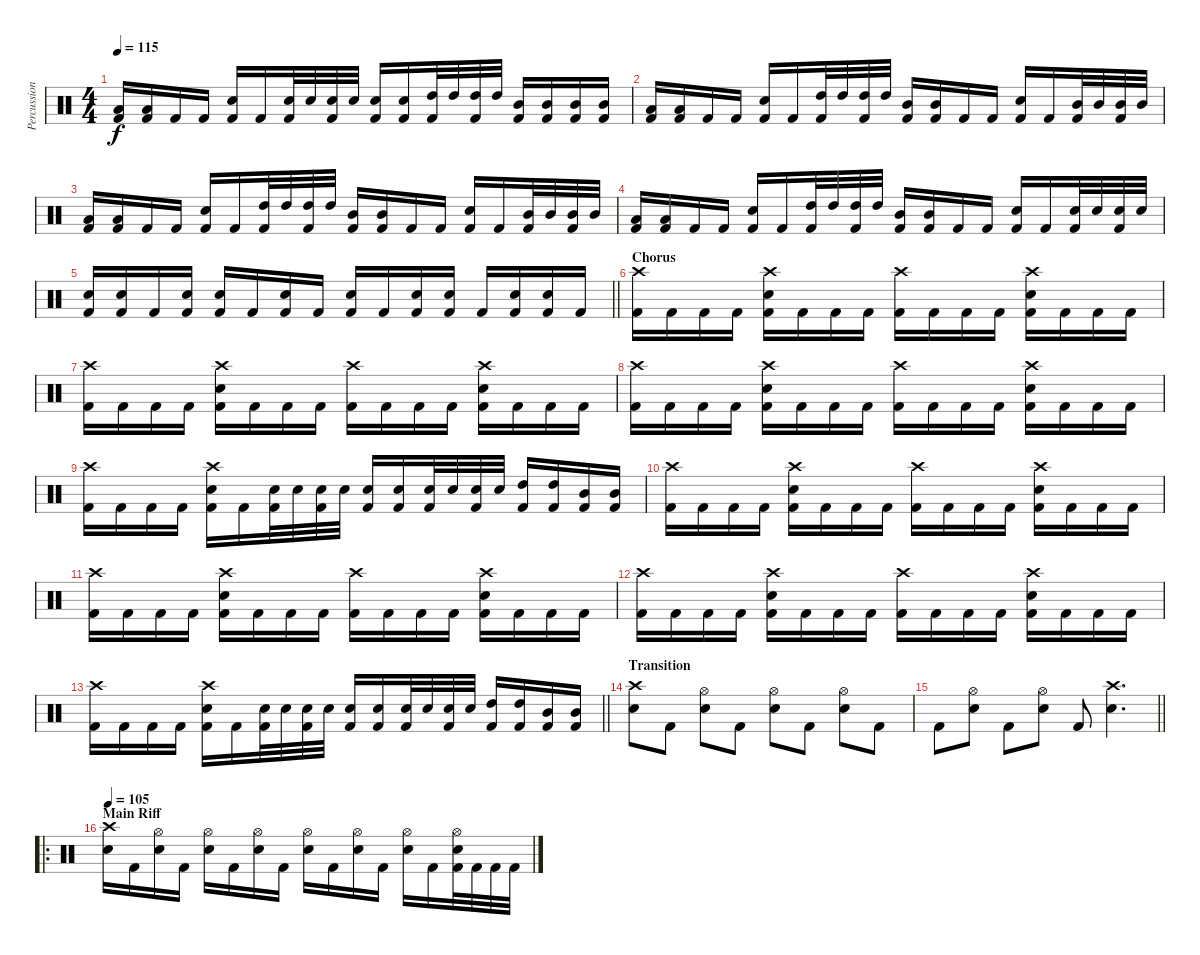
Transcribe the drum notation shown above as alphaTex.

\track ("Percussion" "Percussion") {mute instrument percussion}
\staff {score}
\articulation defaults
\ts (4 4)
\tempo 115
\clef neutral
\ks c
("Low Tom (hit)" "Kick (hit) 2").16{dy f} ("Low Tom (hit)" "Kick (hit) 2").16 "Kick (hit) 2".16 "Kick (hit) 2".16 ("Electric Snare (hit)" "Kick (hit) 2").16 "Kick (hit) 2".16 ("Electric Snare (hit)" "Kick (hit) 2").32 "Electric Snare (hit)".32 ("Electric Snare (hit)" "Kick (hit) 2").32 "Electric Snare (hit)".32 ("Electric Snare (hit)" "Kick (hit) 2").16 ("Electric Snare (hit)" "Kick (hit) 2").16 ("High Tom (hit)" "Kick (hit) 2").32 "High Tom (hit)".32 ("High Tom (hit)" "Kick (hit) 2").32 "High Tom (hit)".32 ("Mid Tom (hit)" "Kick (hit) 2").16 ("Mid Tom (hit)" "Kick (hit) 2").16 ("Mid Tom (hit)" "Kick (hit) 2").16 ("Mid Tom (hit)" "Kick (hit) 2").16 |
("Low Tom (hit)" "Kick (hit) 2").16 ("Low Tom (hit)" "Kick (hit) 2").16 "Kick (hit) 2".16 "Kick (hit) 2".16 ("Electric Snare (hit)" "Kick (hit) 2").16 "Kick (hit) 2".16 ("High Tom (hit)" "Kick (hit) 2").32 "High Tom (hit)".32 ("High Tom (hit)" "Kick (hit) 2").32 "High Tom (hit)".32 ("Mid Tom (hit)" "Kick (hit) 2").16 ("Mid Tom (hit)" "Kick (hit) 2").16 "Kick (hit) 2".16 "Kick (hit) 2".16 ("Electric Snare (hit)" "Kick (hit) 2").16 "Kick (hit) 2".16 ("Mid Tom (hit)" "Kick (hit) 2").32 "Mid Tom (hit)".32 ("Mid Tom (hit)" "Kick (hit) 2").32 "Mid Tom (hit)".32 |
("Low Tom (hit)" "Kick (hit) 2").16 ("Low Tom (hit)" "Kick (hit) 2").16 "Kick (hit) 2".16 "Kick (hit) 2".16 ("Electric Snare (hit)" "Kick (hit) 2").16 "Kick (hit) 2".16 ("High Tom (hit)" "Kick (hit) 2").32 "High Tom (hit)".32 ("High Tom (hit)" "Kick (hit) 2").32 "High Tom (hit)".32 ("Mid Tom (hit)" "Kick (hit) 2").16 ("Mid Tom (hit)" "Kick (hit) 2").16 "Kick (hit) 2".16 "Kick (hit) 2".16 ("Electric Snare (hit)" "Kick (hit) 2").16 "Kick (hit) 2".16 ("Mid Tom (hit)" "Kick (hit) 2").32 "Mid Tom (hit)".32 ("Mid Tom (hit)" "Kick (hit) 2").32 "Mid Tom (hit)".32 |
("Low Tom (hit)" "Kick (hit) 2").16 ("Low Tom (hit)" "Kick (hit) 2").16 "Kick (hit) 2".16 "Kick (hit) 2".16 ("Electric Snare (hit)" "Kick (hit) 2").16 "Kick (hit) 2".16 ("High Tom (hit)" "Kick (hit) 2").32 "High Tom (hit)".32 ("High Tom (hit)" "Kick (hit) 2").32 "High Tom (hit)".32 ("Mid Tom (hit)" "Kick (hit) 2").16 ("Mid Tom (hit)" "Kick (hit) 2").16 "Kick (hit) 2".16 "Kick (hit) 2".16 ("Electric Snare (hit)" "Kick (hit) 2").16 "Kick (hit) 2".16 ("Electric Snare (hit)" "Kick (hit) 2").32 "Electric Snare (hit)".32 ("Electric Snare (hit)" "Kick (hit) 2").32 "Electric Snare (hit)".32 |
\barLineRight lightlight
("Electric Snare (hit)" "Kick (hit) 2").16 ("Electric Snare (hit)" "Kick (hit) 2").16 "Kick (hit) 2".16 ("Electric Snare (hit)" "Kick (hit) 2").16 ("Electric Snare (hit)" "Kick (hit) 2").16 "Kick (hit) 2".16 ("Electric Snare (hit)" "Kick (hit) 2").16 "Kick (hit) 2".16 ("Electric Snare (hit)" "Kick (hit) 2").16 "Kick (hit) 2".16 ("Electric Snare (hit)" "Kick (hit) 2").16 ("Electric Snare (hit)" "Kick (hit) 2").16 "Kick (hit) 2".16 ("Electric Snare (hit)" "Kick (hit) 2").16 ("Electric Snare (hit)" "Kick (hit) 2").16 "Kick (hit) 2".16 |
\section ("" "Chorus")
("Crash high (hit)" "Kick (hit) 2").16 "Kick (hit) 2".16 "Kick (hit) 2".16 "Kick (hit) 2".16 ("Crash high (hit)" "Electric Snare (hit)" "Kick (hit) 2").16 "Kick (hit) 2".16 "Kick (hit) 2".16 "Kick (hit) 2".16 ("Crash high (hit)" "Kick (hit) 2").16 "Kick (hit) 2".16 "Kick (hit) 2".16 "Kick (hit) 2".16 ("Crash high (hit)" "Electric Snare (hit)" "Kick (hit) 2").16 "Kick (hit) 2".16 "Kick (hit) 2".16 "Kick (hit) 2".16 |
("Crash high (hit)" "Kick (hit) 2").16 "Kick (hit) 2".16 "Kick (hit) 2".16 "Kick (hit) 2".16 ("Crash high (hit)" "Electric Snare (hit)" "Kick (hit) 2").16 "Kick (hit) 2".16 "Kick (hit) 2".16 "Kick (hit) 2".16 ("Crash high (hit)" "Kick (hit) 2").16 "Kick (hit) 2".16 "Kick (hit) 2".16 "Kick (hit) 2".16 ("Crash high (hit)" "Electric Snare (hit)" "Kick (hit) 2").16 "Kick (hit) 2".16 "Kick (hit) 2".16 "Kick (hit) 2".16 |
("Crash high (hit)" "Kick (hit) 2").16 "Kick (hit) 2".16 "Kick (hit) 2".16 "Kick (hit) 2".16 ("Crash high (hit)" "Electric Snare (hit)" "Kick (hit) 2").16 "Kick (hit) 2".16 "Kick (hit) 2".16 "Kick (hit) 2".16 ("Crash high (hit)" "Kick (hit) 2").16 "Kick (hit) 2".16 "Kick (hit) 2".16 "Kick (hit) 2".16 ("Crash high (hit)" "Electric Snare (hit)" "Kick (hit) 2").16 "Kick (hit) 2".16 "Kick (hit) 2".16 "Kick (hit) 2".16 |
("Crash high (hit)" "Kick (hit) 2").16 "Kick (hit) 2".16 "Kick (hit) 2".16 "Kick (hit) 2".16 ("Crash high (hit)" "Electric Snare (hit)" "Kick (hit) 2").16 "Kick (hit) 2".16 ("Electric Snare (hit)" "Kick (hit) 2").32 "Electric Snare (hit)".32 ("Electric Snare (hit)" "Kick (hit) 2").32 "Electric Snare (hit)".32 ("Electric Snare (hit)" "Kick (hit) 2").16 ("Electric Snare (hit)" "Kick (hit) 2").16 ("Electric Snare (hit)" "Kick (hit) 2").32 "Electric Snare (hit)".32 ("Electric Snare (hit)" "Kick (hit) 2").32 "Electric Snare (hit)".32 ("High Tom (hit)" "Kick (hit) 2").16 ("High Tom (hit)" "Kick (hit) 2").16 ("Mid Tom (hit)" "Kick (hit) 2").16 ("Mid Tom (hit)" "Kick (hit) 2").16 |
("Crash high (hit)" "Kick (hit) 2").16 "Kick (hit) 2".16 "Kick (hit) 2".16 "Kick (hit) 2".16 ("Crash high (hit)" "Electric Snare (hit)" "Kick (hit) 2").16 "Kick (hit) 2".16 "Kick (hit) 2".16 "Kick (hit) 2".16 ("Crash high (hit)" "Kick (hit) 2").16 "Kick (hit) 2".16 "Kick (hit) 2".16 "Kick (hit) 2".16 ("Crash high (hit)" "Electric Snare (hit)" "Kick (hit) 2").16 "Kick (hit) 2".16 "Kick (hit) 2".16 "Kick (hit) 2".16 |
("Crash high (hit)" "Kick (hit) 2").16 "Kick (hit) 2".16 "Kick (hit) 2".16 "Kick (hit) 2".16 ("Crash high (hit)" "Electric Snare (hit)" "Kick (hit) 2").16 "Kick (hit) 2".16 "Kick (hit) 2".16 "Kick (hit) 2".16 ("Crash high (hit)" "Kick (hit) 2").16 "Kick (hit) 2".16 "Kick (hit) 2".16 "Kick (hit) 2".16 ("Crash high (hit)" "Electric Snare (hit)" "Kick (hit) 2").16 "Kick (hit) 2".16 "Kick (hit) 2".16 "Kick (hit) 2".16 |
("Crash high (hit)" "Kick (hit) 2").16 "Kick (hit) 2".16 "Kick (hit) 2".16 "Kick (hit) 2".16 ("Crash high (hit)" "Electric Snare (hit)" "Kick (hit) 2").16 "Kick (hit) 2".16 "Kick (hit) 2".16 "Kick (hit) 2".16 ("Crash high (hit)" "Kick (hit) 2").16 "Kick (hit) 2".16 "Kick (hit) 2".16 "Kick (hit) 2".16 ("Crash high (hit)" "Electric Snare (hit)" "Kick (hit) 2").16 "Kick (hit) 2".16 "Kick (hit) 2".16 "Kick (hit) 2".16 |
\barLineRight lightlight
("Crash high (hit)" "Kick (hit) 2").16 "Kick (hit) 2".16 "Kick (hit) 2".16 "Kick (hit) 2".16 ("Crash high (hit)" "Electric Snare (hit)" "Kick (hit) 2").16 "Kick (hit) 2".16 ("Electric Snare (hit)" "Kick (hit) 2").32 "Electric Snare (hit)".32 ("Electric Snare (hit)" "Kick (hit) 2").32 "Electric Snare (hit)".32 ("Electric Snare (hit)" "Kick (hit) 2").16 ("Electric Snare (hit)" "Kick (hit) 2").16 ("Electric Snare (hit)" "Kick (hit) 2").32 "Electric Snare (hit)".32 ("Electric Snare (hit)" "Kick (hit) 2").32 "Electric Snare (hit)".32 ("High Tom (hit)" "Kick (hit) 2").16 ("High Tom (hit)" "Kick (hit) 2").16 ("Mid Tom (hit)" "Kick (hit) 2").16 ("Mid Tom (hit)" "Kick (hit) 2").16 |
\section ("" "Transition")
("Crash high (hit)" "Electric Snare (hit)").8 "Kick (hit) 2".8 ("Hi-Hat (open)" "Electric Snare (hit)").8 "Kick (hit) 2".8 ("Hi-Hat (open)" "Electric Snare (hit)").8 "Kick (hit) 2".8 ("Hi-Hat (open)" "Electric Snare (hit)").8 "Kick (hit) 2".8 |
\barLineRight lightlight "Kick (hit) 2".8
("Hi-Hat (open)" "Electric Snare (hit)").8 "Kick (hit) 2".8 ("Hi-Hat (open)" "Electric Snare (hit)").8 "Kick (hit) 2".8 ("Crash high (hit)" "Electric Snare (hit)").4{d} |
\ro
\section ("" "Main Riff")
\tempo 105
("Crash high (hit)" "Electric Snare (hit)").16 "Kick (hit) 2".16 ("Hi-Hat (open)" "Electric Snare (hit)").16 "Kick (hit) 2".16 ("Hi-Hat (open)" "Electric Snare (hit)").16 "Kick (hit) 2".16 ("Hi-Hat (open)" "Electric Snare (hit)").16 "Kick (hit) 2".16 ("Hi-Hat (open)" "Electric Snare (hit)").16 "Kick (hit) 2".16 ("Hi-Hat (open)" "Electric Snare (hit)").16 "Kick (hit) 2".16 ("Hi-Hat (open)" "Electric Snare (hit)").16 "Kick (hit) 2".16 ("Hi-Hat (open)" "Electric Snare (hit)" "Kick (hit) 2").32 "Kick (hit) 2".32 "Kick (hit) 2".32 "Kick (hit) 2".32
